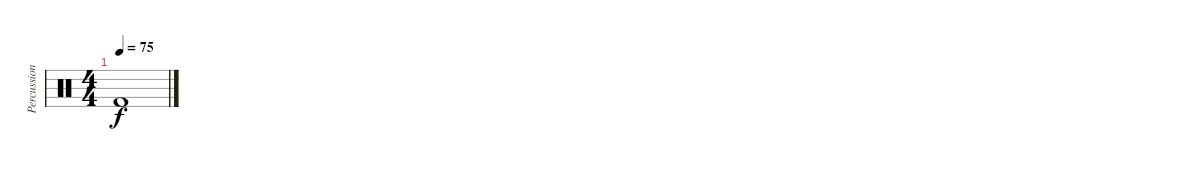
\track ("Percussion . Jeremiah Green" "Percussion") {instrument percussion}
\staff {score}
\articulation defaults
\ts (4 4)
\tempo 75
\clef neutral
\ks c "Kick (hit) 2".1{dy f}
